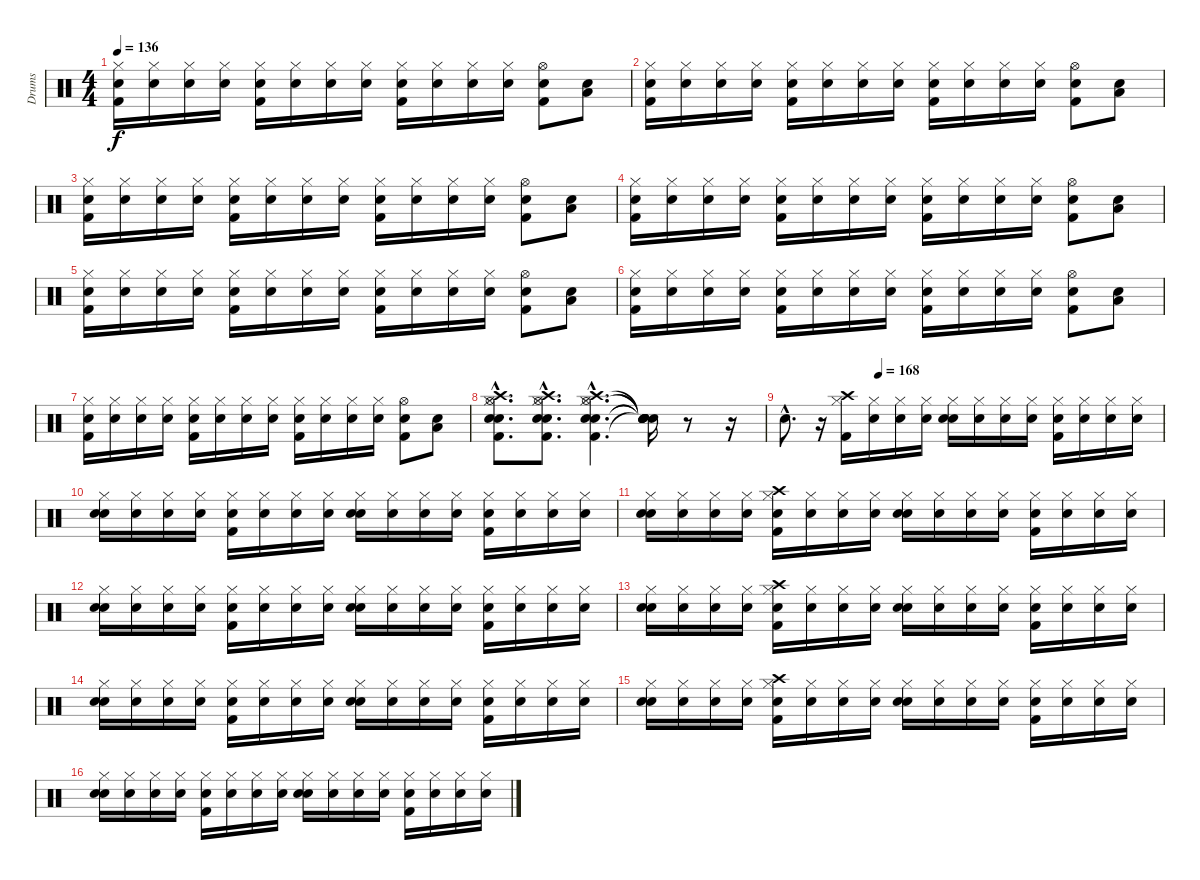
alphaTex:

\track ("Drums" "Drums") {instrument percussion}
\staff {score}
\articulation defaults
\ts (4 4)
\tempo 136
\clef neutral
\ks c
("Snare (hit)" "Kick (hit) 2" "Hi-Hat (closed)").16{dy f} ("Snare (hit)" "Hi-Hat (closed)").16 ("Snare (hit)" "Hi-Hat (closed)").16 ("Snare (hit)" "Hi-Hat (closed)").16 ("Snare (hit)" "Kick (hit) 2" "Hi-Hat (closed)").16 ("Snare (hit)" "Hi-Hat (closed)").16 ("Snare (hit)" "Hi-Hat (closed)").16 ("Snare (hit)" "Hi-Hat (closed)").16 ("Snare (hit)" "Kick (hit) 2" "Hi-Hat (closed)").16 ("Snare (hit)" "Hi-Hat (closed)").16 ("Snare (hit)" "Hi-Hat (closed)").16 ("Snare (hit)" "Hi-Hat (closed)").16 ("Snare (hit)" "Kick (hit) 2" "Hi-Hat (open)").8 ("Snare (hit)" "Low Tom (hit)").8 |
("Snare (hit)" "Kick (hit) 2" "Hi-Hat (closed)").16 ("Snare (hit)" "Hi-Hat (closed)").16 ("Snare (hit)" "Hi-Hat (closed)").16 ("Snare (hit)" "Hi-Hat (closed)").16 ("Snare (hit)" "Kick (hit) 2" "Hi-Hat (closed)").16 ("Snare (hit)" "Hi-Hat (closed)").16 ("Snare (hit)" "Hi-Hat (closed)").16 ("Snare (hit)" "Hi-Hat (closed)").16 ("Snare (hit)" "Kick (hit) 2" "Hi-Hat (closed)").16 ("Snare (hit)" "Hi-Hat (closed)").16 ("Snare (hit)" "Hi-Hat (closed)").16 ("Snare (hit)" "Hi-Hat (closed)").16 ("Snare (hit)" "Kick (hit) 2" "Hi-Hat (open)").8 ("Snare (hit)" "Low Tom (hit)").8 |
("Snare (hit)" "Kick (hit) 2" "Hi-Hat (closed)").16 ("Snare (hit)" "Hi-Hat (closed)").16 ("Snare (hit)" "Hi-Hat (closed)").16 ("Snare (hit)" "Hi-Hat (closed)").16 ("Snare (hit)" "Kick (hit) 2" "Hi-Hat (closed)").16 ("Snare (hit)" "Hi-Hat (closed)").16 ("Snare (hit)" "Hi-Hat (closed)").16 ("Snare (hit)" "Hi-Hat (closed)").16 ("Snare (hit)" "Kick (hit) 2" "Hi-Hat (closed)").16 ("Snare (hit)" "Hi-Hat (closed)").16 ("Snare (hit)" "Hi-Hat (closed)").16 ("Snare (hit)" "Hi-Hat (closed)").16 ("Snare (hit)" "Kick (hit) 2" "Hi-Hat (open)").8 ("Snare (hit)" "Low Tom (hit)").8 |
("Snare (hit)" "Kick (hit) 2" "Hi-Hat (closed)").16 ("Snare (hit)" "Hi-Hat (closed)").16 ("Snare (hit)" "Hi-Hat (closed)").16 ("Snare (hit)" "Hi-Hat (closed)").16 ("Snare (hit)" "Kick (hit) 2" "Hi-Hat (closed)").16 ("Snare (hit)" "Hi-Hat (closed)").16 ("Snare (hit)" "Hi-Hat (closed)").16 ("Snare (hit)" "Hi-Hat (closed)").16 ("Snare (hit)" "Kick (hit) 2" "Hi-Hat (closed)").16 ("Snare (hit)" "Hi-Hat (closed)").16 ("Snare (hit)" "Hi-Hat (closed)").16 ("Snare (hit)" "Hi-Hat (closed)").16 ("Snare (hit)" "Kick (hit) 2" "Hi-Hat (open)").8 ("Snare (hit)" "Low Tom (hit)").8 |
("Snare (hit)" "Kick (hit) 2" "Hi-Hat (closed)").16 ("Snare (hit)" "Hi-Hat (closed)").16 ("Snare (hit)" "Hi-Hat (closed)").16 ("Snare (hit)" "Hi-Hat (closed)").16 ("Snare (hit)" "Kick (hit) 2" "Hi-Hat (closed)").16 ("Snare (hit)" "Hi-Hat (closed)").16 ("Snare (hit)" "Hi-Hat (closed)").16 ("Snare (hit)" "Hi-Hat (closed)").16 ("Snare (hit)" "Kick (hit) 2" "Hi-Hat (closed)").16 ("Snare (hit)" "Hi-Hat (closed)").16 ("Snare (hit)" "Hi-Hat (closed)").16 ("Snare (hit)" "Hi-Hat (closed)").16 ("Snare (hit)" "Kick (hit) 2" "Hi-Hat (open)").8 ("Snare (hit)" "Low Tom (hit)").8 |
("Snare (hit)" "Kick (hit) 2" "Hi-Hat (closed)").16 ("Snare (hit)" "Hi-Hat (closed)").16 ("Snare (hit)" "Hi-Hat (closed)").16 ("Snare (hit)" "Hi-Hat (closed)").16 ("Snare (hit)" "Kick (hit) 2" "Hi-Hat (closed)").16 ("Snare (hit)" "Hi-Hat (closed)").16 ("Snare (hit)" "Hi-Hat (closed)").16 ("Snare (hit)" "Hi-Hat (closed)").16 ("Snare (hit)" "Kick (hit) 2" "Hi-Hat (closed)").16 ("Snare (hit)" "Hi-Hat (closed)").16 ("Snare (hit)" "Hi-Hat (closed)").16 ("Snare (hit)" "Hi-Hat (closed)").16 ("Snare (hit)" "Kick (hit) 2" "Hi-Hat (open)").8 ("Snare (hit)" "Low Tom (hit)").8 |
("Snare (hit)" "Kick (hit) 2" "Hi-Hat (closed)").16 ("Snare (hit)" "Hi-Hat (closed)").16 ("Snare (hit)" "Hi-Hat (closed)").16 ("Snare (hit)" "Hi-Hat (closed)").16 ("Snare (hit)" "Kick (hit) 2" "Hi-Hat (closed)").16 ("Snare (hit)" "Hi-Hat (closed)").16 ("Snare (hit)" "Hi-Hat (closed)").16 ("Snare (hit)" "Hi-Hat (closed)").16 ("Snare (hit)" "Kick (hit) 2" "Hi-Hat (closed)").16 ("Snare (hit)" "Hi-Hat (closed)").16 ("Snare (hit)" "Hi-Hat (closed)").16 ("Snare (hit)" "Hi-Hat (closed)").16 ("Snare (hit)" "Kick (hit) 2" "Hi-Hat (open)").8 ("Snare (hit)" "Low Tom (hit)").8 |
("Snare (hit)"{hac} "Kick (hit) 2"{hac} "Snare (hit) 2"{hac} "Hi-Hat (closed)"{hac} "Hi-Hat (open)"{hac} "Crash high (hit)"{hac}).8{d} ("Snare (hit)"{hac} "Kick (hit) 2"{hac} "Snare (hit) 2"{hac} "Hi-Hat (closed)"{hac} "Hi-Hat (open)"{hac} "Crash high (hit)"{hac}).8{d} ("Snare (hit)"{hac} "Kick (hit) 2"{hac} "Snare (hit) 2"{hac} "Hi-Hat (closed)"{hac} "Hi-Hat (open)"{hac} "Crash high (hit)"{hac}).4{d} ("Snare (hit)"{t} "Snare (hit)"{t} "Snare (hit)"{t} "Snare (hit)"{t} "Snare (hit)"{t} "Snare (hit)"{t}).16 r.8 r.16 |
\tempo (168 0.25)
"Snare (hit) 2"{hac}.8{d} r.16 ("Kick (hit) 2" "Hi-Hat (closed)" "Crash high (hit)").16 ("Snare (hit)" "Hi-Hat (closed)").16 ("Snare (hit)" "Hi-Hat (closed)").16 ("Snare (hit)" "Hi-Hat (closed)").16 ("Snare (hit)" "Snare (hit) 2" "Hi-Hat (closed)").16 ("Snare (hit)" "Hi-Hat (closed)").16 ("Snare (hit)" "Hi-Hat (closed)").16 ("Snare (hit)" "Hi-Hat (closed)").16 ("Snare (hit)" "Kick (hit) 2" "Hi-Hat (closed)").16 ("Snare (hit)" "Hi-Hat (closed)").16 ("Snare (hit)" "Hi-Hat (closed)").16 ("Snare (hit)" "Hi-Hat (closed)").16 |
("Snare (hit)" "Snare (hit) 2" "Hi-Hat (closed)").16 ("Snare (hit)" "Hi-Hat (closed)").16 ("Snare (hit)" "Hi-Hat (closed)").16 ("Snare (hit)" "Hi-Hat (closed)").16 ("Snare (hit)" "Kick (hit) 2" "Hi-Hat (closed)").16 ("Snare (hit)" "Hi-Hat (closed)").16 ("Snare (hit)" "Hi-Hat (closed)").16 ("Snare (hit)" "Hi-Hat (closed)").16 ("Snare (hit)" "Snare (hit) 2" "Hi-Hat (closed)").16 ("Snare (hit)" "Hi-Hat (closed)").16 ("Snare (hit)" "Hi-Hat (closed)").16 ("Snare (hit)" "Hi-Hat (closed)").16 ("Snare (hit)" "Kick (hit) 2" "Hi-Hat (closed)").16 ("Snare (hit)" "Hi-Hat (closed)").16 ("Snare (hit)" "Hi-Hat (closed)").16 ("Snare (hit)" "Hi-Hat (closed)").16 |
("Snare (hit)" "Snare (hit) 2" "Hi-Hat (closed)").16 ("Snare (hit)" "Hi-Hat (closed)").16 ("Snare (hit)" "Hi-Hat (closed)").16 ("Snare (hit)" "Hi-Hat (closed)").16 ("Snare (hit)" "Kick (hit) 2" "Hi-Hat (closed)" "Crash high (hit)").16 ("Snare (hit)" "Hi-Hat (closed)").16 ("Snare (hit)" "Hi-Hat (closed)").16 ("Snare (hit)" "Hi-Hat (closed)").16 ("Snare (hit)" "Snare (hit) 2" "Hi-Hat (closed)").16 ("Snare (hit)" "Hi-Hat (closed)").16 ("Snare (hit)" "Hi-Hat (closed)").16 ("Snare (hit)" "Hi-Hat (closed)").16 ("Snare (hit)" "Kick (hit) 2" "Hi-Hat (closed)").16 ("Snare (hit)" "Hi-Hat (closed)").16 ("Snare (hit)" "Hi-Hat (closed)").16 ("Snare (hit)" "Hi-Hat (closed)").16 |
("Snare (hit)" "Snare (hit) 2" "Hi-Hat (closed)").16 ("Snare (hit)" "Hi-Hat (closed)").16 ("Snare (hit)" "Hi-Hat (closed)").16 ("Snare (hit)" "Hi-Hat (closed)").16 ("Snare (hit)" "Kick (hit) 2" "Hi-Hat (closed)").16 ("Snare (hit)" "Hi-Hat (closed)").16 ("Snare (hit)" "Hi-Hat (closed)").16 ("Snare (hit)" "Hi-Hat (closed)").16 ("Snare (hit)" "Snare (hit) 2" "Hi-Hat (closed)").16 ("Snare (hit)" "Hi-Hat (closed)").16 ("Snare (hit)" "Hi-Hat (closed)").16 ("Snare (hit)" "Hi-Hat (closed)").16 ("Snare (hit)" "Kick (hit) 2" "Hi-Hat (closed)").16 ("Snare (hit)" "Hi-Hat (closed)").16 ("Snare (hit)" "Hi-Hat (closed)").16 ("Snare (hit)" "Hi-Hat (closed)").16 |
("Snare (hit)" "Snare (hit) 2" "Hi-Hat (closed)").16 ("Snare (hit)" "Hi-Hat (closed)").16 ("Snare (hit)" "Hi-Hat (closed)").16 ("Snare (hit)" "Hi-Hat (closed)").16 ("Snare (hit)" "Kick (hit) 2" "Hi-Hat (closed)" "Crash high (hit)").16 ("Snare (hit)" "Hi-Hat (closed)").16 ("Snare (hit)" "Hi-Hat (closed)").16 ("Snare (hit)" "Hi-Hat (closed)").16 ("Snare (hit)" "Snare (hit) 2" "Hi-Hat (closed)").16 ("Snare (hit)" "Hi-Hat (closed)").16 ("Snare (hit)" "Hi-Hat (closed)").16 ("Snare (hit)" "Hi-Hat (closed)").16 ("Snare (hit)" "Kick (hit) 2" "Hi-Hat (closed)").16 ("Snare (hit)" "Hi-Hat (closed)").16 ("Snare (hit)" "Hi-Hat (closed)").16 ("Snare (hit)" "Hi-Hat (closed)").16 |
("Snare (hit)" "Snare (hit) 2" "Hi-Hat (closed)").16 ("Snare (hit)" "Hi-Hat (closed)").16 ("Snare (hit)" "Hi-Hat (closed)").16 ("Snare (hit)" "Hi-Hat (closed)").16 ("Snare (hit)" "Kick (hit) 2" "Hi-Hat (closed)").16 ("Snare (hit)" "Hi-Hat (closed)").16 ("Snare (hit)" "Hi-Hat (closed)").16 ("Snare (hit)" "Hi-Hat (closed)").16 ("Snare (hit)" "Snare (hit) 2" "Hi-Hat (closed)").16 ("Snare (hit)" "Hi-Hat (closed)").16 ("Snare (hit)" "Hi-Hat (closed)").16 ("Snare (hit)" "Hi-Hat (closed)").16 ("Snare (hit)" "Kick (hit) 2" "Hi-Hat (closed)").16 ("Snare (hit)" "Hi-Hat (closed)").16 ("Snare (hit)" "Hi-Hat (closed)").16 ("Snare (hit)" "Hi-Hat (closed)").16 |
("Snare (hit)" "Snare (hit) 2" "Hi-Hat (closed)").16 ("Snare (hit)" "Hi-Hat (closed)").16 ("Snare (hit)" "Hi-Hat (closed)").16 ("Snare (hit)" "Hi-Hat (closed)").16 ("Snare (hit)" "Kick (hit) 2" "Hi-Hat (closed)" "Crash high (hit)").16 ("Snare (hit)" "Hi-Hat (closed)").16 ("Snare (hit)" "Hi-Hat (closed)").16 ("Snare (hit)" "Hi-Hat (closed)").16 ("Snare (hit)" "Snare (hit) 2" "Hi-Hat (closed)").16 ("Snare (hit)" "Hi-Hat (closed)").16 ("Snare (hit)" "Hi-Hat (closed)").16 ("Snare (hit)" "Hi-Hat (closed)").16 ("Snare (hit)" "Kick (hit) 2" "Hi-Hat (closed)").16 ("Snare (hit)" "Hi-Hat (closed)").16 ("Snare (hit)" "Hi-Hat (closed)").16 ("Snare (hit)" "Hi-Hat (closed)").16 |
("Snare (hit)" "Snare (hit) 2" "Hi-Hat (closed)").16 ("Snare (hit)" "Hi-Hat (closed)").16 ("Snare (hit)" "Hi-Hat (closed)").16 ("Snare (hit)" "Hi-Hat (closed)").16 ("Snare (hit)" "Kick (hit) 2" "Hi-Hat (closed)").16 ("Snare (hit)" "Hi-Hat (closed)").16 ("Snare (hit)" "Hi-Hat (closed)").16 ("Snare (hit)" "Hi-Hat (closed)").16 ("Snare (hit)" "Snare (hit) 2" "Hi-Hat (closed)").16 ("Snare (hit)" "Hi-Hat (closed)").16 ("Snare (hit)" "Hi-Hat (closed)").16 ("Snare (hit)" "Hi-Hat (closed)").16 ("Snare (hit)" "Kick (hit) 2" "Hi-Hat (closed)").16 ("Snare (hit)" "Hi-Hat (closed)").16 ("Snare (hit)" "Hi-Hat (closed)").16 ("Snare (hit)" "Hi-Hat (closed)").16
